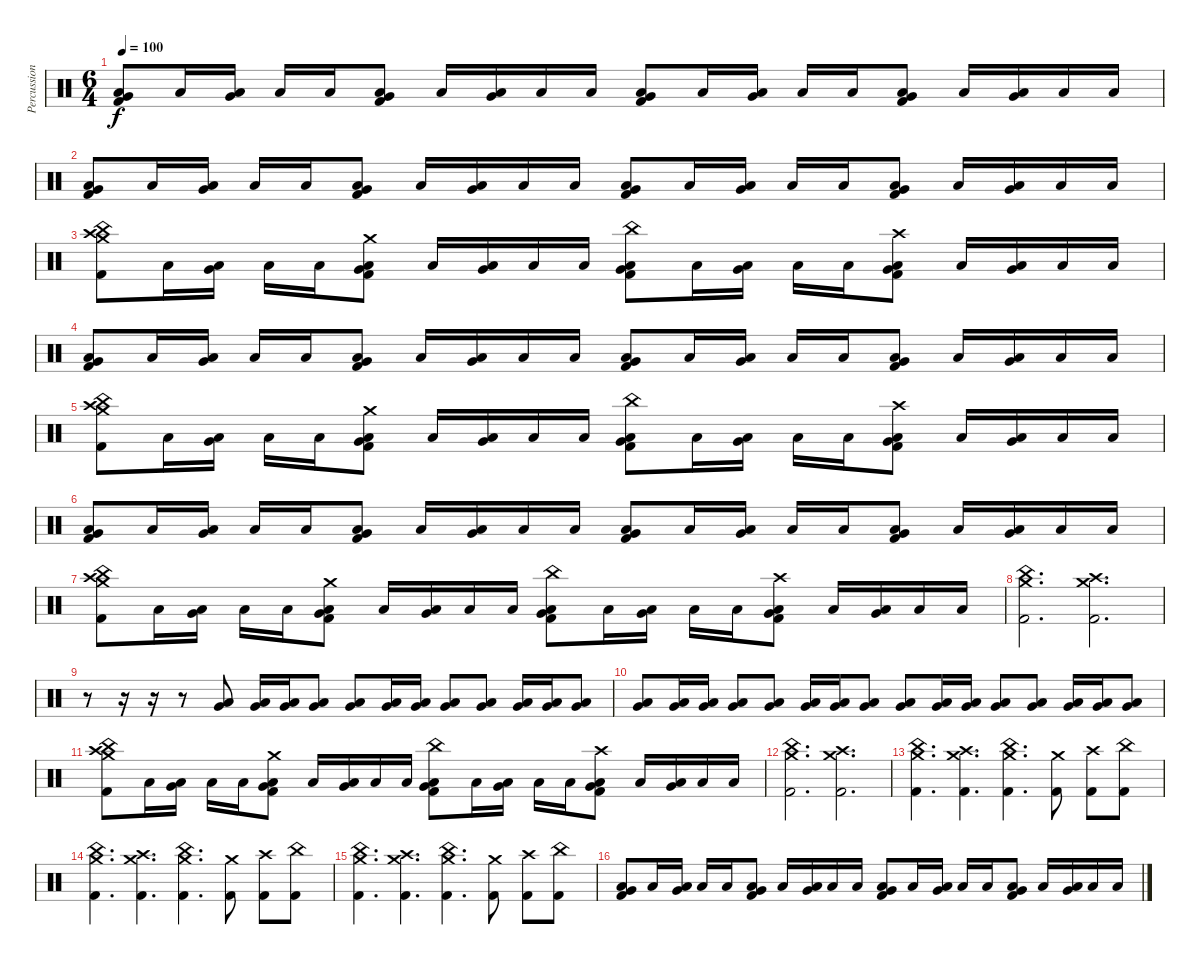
\track ("Percussion" "Percussion") {instrument percussion}
\staff {score}
\articulation defaults
\ts (6 4)
\tempo 100
\clef neutral
\ks c
("Very Low Tom (hit)" "Low Floor Tom (hit)" "Kick (hit) 2").8{dy f} "Low Floor Tom (hit)".16 ("Very Low Tom (hit)" "Low Floor Tom (hit)").16 "Low Floor Tom (hit)".16 "Low Floor Tom (hit)".16 ("Very Low Tom (hit)" "Low Floor Tom (hit)" "Kick (hit) 2").8 "Low Floor Tom (hit)".16 ("Very Low Tom (hit)" "Low Floor Tom (hit)").16 "Low Floor Tom (hit)".16 "Low Floor Tom (hit)".16 ("Very Low Tom (hit)" "Low Floor Tom (hit)" "Kick (hit) 2").8 "Low Floor Tom (hit)".16 ("Very Low Tom (hit)" "Low Floor Tom (hit)").16 "Low Floor Tom (hit)".16 "Low Floor Tom (hit)".16 ("Very Low Tom (hit)" "Low Floor Tom (hit)" "Kick (hit) 2").8 "Low Floor Tom (hit)".16 ("Very Low Tom (hit)" "Low Floor Tom (hit)").16 "Low Floor Tom (hit)".16 "Low Floor Tom (hit)".16 |
("Very Low Tom (hit)" "Low Floor Tom (hit)" "Kick (hit) 2").8 "Low Floor Tom (hit)".16 ("Very Low Tom (hit)" "Low Floor Tom (hit)").16 "Low Floor Tom (hit)".16 "Low Floor Tom (hit)".16 ("Very Low Tom (hit)" "Low Floor Tom (hit)" "Kick (hit) 2").8 "Low Floor Tom (hit)".16 ("Very Low Tom (hit)" "Low Floor Tom (hit)").16 "Low Floor Tom (hit)".16 "Low Floor Tom (hit)".16 ("Very Low Tom (hit)" "Low Floor Tom (hit)" "Kick (hit) 2").8 "Low Floor Tom (hit)".16 ("Very Low Tom (hit)" "Low Floor Tom (hit)").16 "Low Floor Tom (hit)".16 "Low Floor Tom (hit)".16 ("Very Low Tom (hit)" "Low Floor Tom (hit)" "Kick (hit) 2").8 "Low Floor Tom (hit)".16 ("Very Low Tom (hit)" "Low Floor Tom (hit)").16 "Low Floor Tom (hit)".16 "Low Floor Tom (hit)".16 |
("Crash medium (hit)" "Crash high (hit)" "China (hit)" "Kick (hit) 2").8 "Low Floor Tom (hit)".16 ("Very Low Tom (hit)" "Low Floor Tom (hit)").16 "Low Floor Tom (hit)".16 "Low Floor Tom (hit)".16 ("Crash medium (hit)" "Very Low Tom (hit)" "Low Floor Tom (hit)" "Kick (hit) 2").8 "Low Floor Tom (hit)".16 ("Very Low Tom (hit)" "Low Floor Tom (hit)").16 "Low Floor Tom (hit)".16 "Low Floor Tom (hit)".16 ("China (hit)" "Very Low Tom (hit)" "Low Floor Tom (hit)" "Kick (hit) 2").8 "Low Floor Tom (hit)".16 ("Very Low Tom (hit)" "Low Floor Tom (hit)").16 "Low Floor Tom (hit)".16 "Low Floor Tom (hit)".16 ("Crash high (hit)" "Very Low Tom (hit)" "Low Floor Tom (hit)" "Kick (hit) 2").8 "Low Floor Tom (hit)".16 ("Very Low Tom (hit)" "Low Floor Tom (hit)").16 "Low Floor Tom (hit)".16 "Low Floor Tom (hit)".16 |
("Very Low Tom (hit)" "Low Floor Tom (hit)" "Kick (hit) 2").8 "Low Floor Tom (hit)".16 ("Very Low Tom (hit)" "Low Floor Tom (hit)").16 "Low Floor Tom (hit)".16 "Low Floor Tom (hit)".16 ("Very Low Tom (hit)" "Low Floor Tom (hit)" "Kick (hit) 2").8 "Low Floor Tom (hit)".16 ("Very Low Tom (hit)" "Low Floor Tom (hit)").16 "Low Floor Tom (hit)".16 "Low Floor Tom (hit)".16 ("Very Low Tom (hit)" "Low Floor Tom (hit)" "Kick (hit) 2").8 "Low Floor Tom (hit)".16 ("Very Low Tom (hit)" "Low Floor Tom (hit)").16 "Low Floor Tom (hit)".16 "Low Floor Tom (hit)".16 ("Very Low Tom (hit)" "Low Floor Tom (hit)" "Kick (hit) 2").8 "Low Floor Tom (hit)".16 ("Very Low Tom (hit)" "Low Floor Tom (hit)").16 "Low Floor Tom (hit)".16 "Low Floor Tom (hit)".16 |
("Crash medium (hit)" "Crash high (hit)" "China (hit)" "Kick (hit) 2").8 "Low Floor Tom (hit)".16 ("Very Low Tom (hit)" "Low Floor Tom (hit)").16 "Low Floor Tom (hit)".16 "Low Floor Tom (hit)".16 ("Crash medium (hit)" "Very Low Tom (hit)" "Low Floor Tom (hit)" "Kick (hit) 2").8 "Low Floor Tom (hit)".16 ("Very Low Tom (hit)" "Low Floor Tom (hit)").16 "Low Floor Tom (hit)".16 "Low Floor Tom (hit)".16 ("China (hit)" "Very Low Tom (hit)" "Low Floor Tom (hit)" "Kick (hit) 2").8 "Low Floor Tom (hit)".16 ("Very Low Tom (hit)" "Low Floor Tom (hit)").16 "Low Floor Tom (hit)".16 "Low Floor Tom (hit)".16 ("Crash high (hit)" "Very Low Tom (hit)" "Low Floor Tom (hit)" "Kick (hit) 2").8 "Low Floor Tom (hit)".16 ("Very Low Tom (hit)" "Low Floor Tom (hit)").16 "Low Floor Tom (hit)".16 "Low Floor Tom (hit)".16 |
("Very Low Tom (hit)" "Low Floor Tom (hit)" "Kick (hit) 2").8 "Low Floor Tom (hit)".16 ("Very Low Tom (hit)" "Low Floor Tom (hit)").16 "Low Floor Tom (hit)".16 "Low Floor Tom (hit)".16 ("Very Low Tom (hit)" "Low Floor Tom (hit)" "Kick (hit) 2").8 "Low Floor Tom (hit)".16 ("Very Low Tom (hit)" "Low Floor Tom (hit)").16 "Low Floor Tom (hit)".16 "Low Floor Tom (hit)".16 ("Very Low Tom (hit)" "Low Floor Tom (hit)" "Kick (hit) 2").8 "Low Floor Tom (hit)".16 ("Very Low Tom (hit)" "Low Floor Tom (hit)").16 "Low Floor Tom (hit)".16 "Low Floor Tom (hit)".16 ("Very Low Tom (hit)" "Low Floor Tom (hit)" "Kick (hit) 2").8 "Low Floor Tom (hit)".16 ("Very Low Tom (hit)" "Low Floor Tom (hit)").16 "Low Floor Tom (hit)".16 "Low Floor Tom (hit)".16 |
("Crash medium (hit)" "Crash high (hit)" "China (hit)" "Kick (hit) 2").8 "Low Floor Tom (hit)".16 ("Very Low Tom (hit)" "Low Floor Tom (hit)").16 "Low Floor Tom (hit)".16 "Low Floor Tom (hit)".16 ("Crash medium (hit)" "Very Low Tom (hit)" "Low Floor Tom (hit)" "Kick (hit) 2").8 "Low Floor Tom (hit)".16 ("Very Low Tom (hit)" "Low Floor Tom (hit)").16 "Low Floor Tom (hit)".16 "Low Floor Tom (hit)".16 ("China (hit)" "Very Low Tom (hit)" "Low Floor Tom (hit)" "Kick (hit) 2").8 "Low Floor Tom (hit)".16 ("Very Low Tom (hit)" "Low Floor Tom (hit)").16 "Low Floor Tom (hit)".16 "Low Floor Tom (hit)".16 ("Crash high (hit)" "Very Low Tom (hit)" "Low Floor Tom (hit)" "Kick (hit) 2").8 "Low Floor Tom (hit)".16 ("Very Low Tom (hit)" "Low Floor Tom (hit)").16 "Low Floor Tom (hit)".16 "Low Floor Tom (hit)".16 |
("Crash medium (hit)" "China (hit)" "Kick (hit) 2").2{d} ("Crash medium (hit)" "Crash high (hit)" "Kick (hit) 2").2{d} |
r.8 r.16 r.16 r.8 ("Very Low Tom (hit)" "Low Floor Tom (hit)").8 ("Low Floor Tom (hit)" "Very Low Tom (hit)").16 ("Low Floor Tom (hit)" "Very Low Tom (hit)").16 ("Low Floor Tom (hit)" "Very Low Tom (hit)").8 ("Very Low Tom (hit)" "Low Floor Tom (hit)").8 ("Low Floor Tom (hit)" "Very Low Tom (hit)").16 ("Low Floor Tom (hit)" "Very Low Tom (hit)").16 ("Low Floor Tom (hit)" "Very Low Tom (hit)").8 ("Very Low Tom (hit)" "Low Floor Tom (hit)").8 ("Low Floor Tom (hit)" "Very Low Tom (hit)").16 ("Low Floor Tom (hit)" "Very Low Tom (hit)").16 ("Low Floor Tom (hit)" "Very Low Tom (hit)").8 |
("Very Low Tom (hit)" "Low Floor Tom (hit)").8 ("Low Floor Tom (hit)" "Very Low Tom (hit)").16 ("Low Floor Tom (hit)" "Very Low Tom (hit)").16 ("Low Floor Tom (hit)" "Very Low Tom (hit)").8 ("Very Low Tom (hit)" "Low Floor Tom (hit)").8 ("Low Floor Tom (hit)" "Very Low Tom (hit)").16 ("Low Floor Tom (hit)" "Very Low Tom (hit)").16 ("Low Floor Tom (hit)" "Very Low Tom (hit)").8 ("Very Low Tom (hit)" "Low Floor Tom (hit)").8 ("Low Floor Tom (hit)" "Very Low Tom (hit)").16 ("Low Floor Tom (hit)" "Very Low Tom (hit)").16 ("Low Floor Tom (hit)" "Very Low Tom (hit)").8 ("Very Low Tom (hit)" "Low Floor Tom (hit)").8 ("Low Floor Tom (hit)" "Very Low Tom (hit)").16 ("Low Floor Tom (hit)" "Very Low Tom (hit)").16 ("Low Floor Tom (hit)" "Very Low Tom (hit)").8 |
("Crash medium (hit)" "Crash high (hit)" "China (hit)" "Kick (hit) 2").8 "Low Floor Tom (hit)".16 ("Very Low Tom (hit)" "Low Floor Tom (hit)").16 "Low Floor Tom (hit)".16 "Low Floor Tom (hit)".16 ("Crash medium (hit)" "Very Low Tom (hit)" "Low Floor Tom (hit)" "Kick (hit) 2").8 "Low Floor Tom (hit)".16 ("Very Low Tom (hit)" "Low Floor Tom (hit)").16 "Low Floor Tom (hit)".16 "Low Floor Tom (hit)".16 ("China (hit)" "Very Low Tom (hit)" "Low Floor Tom (hit)" "Kick (hit) 2").8 "Low Floor Tom (hit)".16 ("Very Low Tom (hit)" "Low Floor Tom (hit)").16 "Low Floor Tom (hit)".16 "Low Floor Tom (hit)".16 ("Crash high (hit)" "Very Low Tom (hit)" "Low Floor Tom (hit)" "Kick (hit) 2").8 "Low Floor Tom (hit)".16 ("Very Low Tom (hit)" "Low Floor Tom (hit)").16 "Low Floor Tom (hit)".16 "Low Floor Tom (hit)".16 |
("Crash medium (hit)" "China (hit)" "Kick (hit) 2").2{d} ("Crash medium (hit)" "Crash high (hit)" "Kick (hit) 2").2{d} |
("Crash medium (hit)" "China (hit)" "Kick (hit) 2").4{d} ("Crash medium (hit)" "Crash high (hit)" "Kick (hit) 2").4{d} ("Crash medium (hit)" "China (hit)" "Kick (hit) 2").4{d} ("Crash medium (hit)" "Kick (hit) 2").8 ("Crash high (hit)" "Kick (hit) 2").8 ("China (hit)" "Kick (hit) 2").8 |
("Crash medium (hit)" "China (hit)" "Kick (hit) 2").4{d} ("Crash medium (hit)" "Crash high (hit)" "Kick (hit) 2").4{d} ("Crash medium (hit)" "China (hit)" "Kick (hit) 2").4{d} ("Crash medium (hit)" "Kick (hit) 2").8 ("Crash high (hit)" "Kick (hit) 2").8 ("China (hit)" "Kick (hit) 2").8 |
("Crash medium (hit)" "China (hit)" "Kick (hit) 2").4{d} ("Crash medium (hit)" "Crash high (hit)" "Kick (hit) 2").4{d} ("Crash medium (hit)" "China (hit)" "Kick (hit) 2").4{d} ("Crash medium (hit)" "Kick (hit) 2").8 ("Crash high (hit)" "Kick (hit) 2").8 ("China (hit)" "Kick (hit) 2").8 |
("Very Low Tom (hit)" "Low Floor Tom (hit)" "Kick (hit) 2").8 "Low Floor Tom (hit)".16 ("Very Low Tom (hit)" "Low Floor Tom (hit)").16 "Low Floor Tom (hit)".16 "Low Floor Tom (hit)".16 ("Very Low Tom (hit)" "Low Floor Tom (hit)" "Kick (hit) 2").8 "Low Floor Tom (hit)".16 ("Very Low Tom (hit)" "Low Floor Tom (hit)").16 "Low Floor Tom (hit)".16 "Low Floor Tom (hit)".16 ("Very Low Tom (hit)" "Low Floor Tom (hit)" "Kick (hit) 2").8 "Low Floor Tom (hit)".16 ("Very Low Tom (hit)" "Low Floor Tom (hit)").16 "Low Floor Tom (hit)".16 "Low Floor Tom (hit)".16 ("Very Low Tom (hit)" "Low Floor Tom (hit)" "Kick (hit) 2").8 "Low Floor Tom (hit)".16 ("Very Low Tom (hit)" "Low Floor Tom (hit)").16 "Low Floor Tom (hit)".16 "Low Floor Tom (hit)".16
